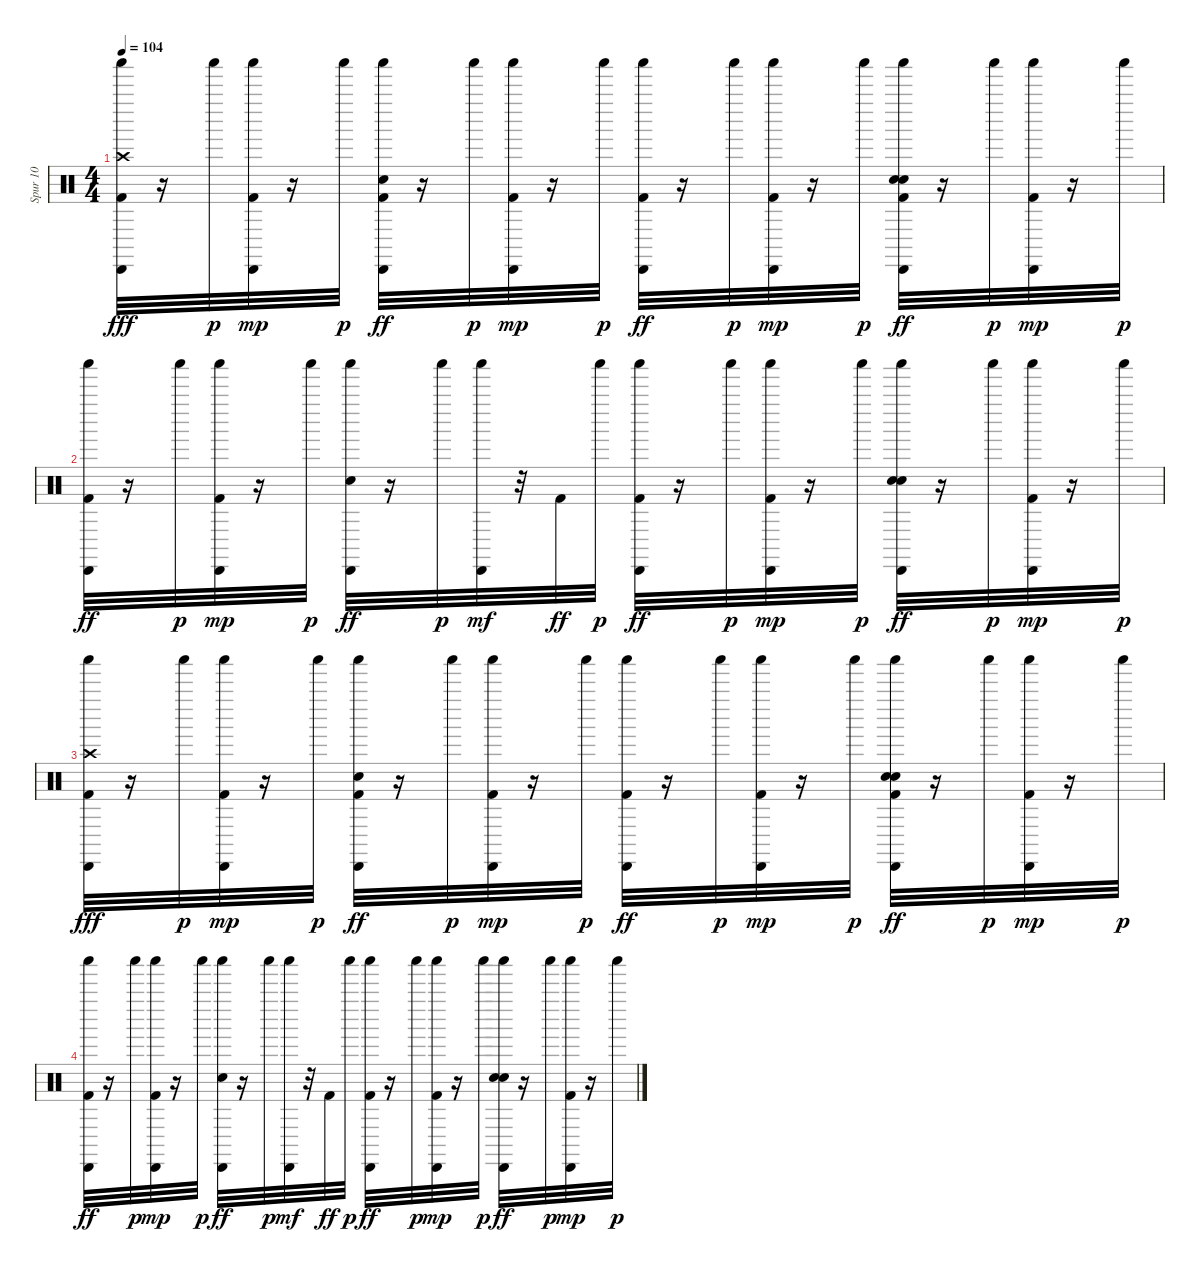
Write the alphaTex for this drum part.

\track ("Spur 10" "Spur 10") {instrument percussion}
\staff {score}
\articulation defaults
\ts (4 4)
\tempo 104
\clef neutral
\ks c
("Crash high (hit)" "Kick (hit) 2" "Cabasa (hit)" "Shaker (hit)").32{dy fff} r.16 "Shaker (hit)".32{dy p} ("Kick (hit) 2" "Cabasa (hit)" "Shaker (hit)").32{dy mp} r.16 "Shaker (hit)".32{dy p} ("Kick (hit) 2" "Snare (hit) 2" "Cabasa (hit)" "Shaker (hit)").32{dy ff} r.16 "Shaker (hit)".32{dy p} ("Kick (hit) 2" "Cabasa (hit)" "Shaker (hit)").32{dy mp} r.16 "Shaker (hit)".32{dy p} ("Kick (hit) 2" "Cabasa (hit)" "Shaker (hit)").32{dy ff} r.16 "Shaker (hit)".32{dy p} ("Kick (hit) 2" "Cabasa (hit)" "Shaker (hit)").32{dy mp} r.16 "Shaker (hit)".32{dy p} ("Kick (hit) 2" "Snare (hit) 2" "Hand Clap (hit)" "Cabasa (hit)" "Shaker (hit)").32{dy ff} r.16 "Shaker (hit)".32{dy p} ("Kick (hit) 2" "Cabasa (hit)" "Shaker (hit)").32{dy mp} r.16 "Shaker (hit)".32{dy p} |
("Kick (hit) 2" "Cabasa (hit)" "Shaker (hit)").32{dy ff} r.16 "Shaker (hit)".32{dy p} ("Kick (hit) 2" "Cabasa (hit)" "Shaker (hit)").32{dy mp} r.16 "Shaker (hit)".32{dy p} ("Snare (hit) 2" "Cabasa (hit)" "Shaker (hit)").32{dy ff} r.16 "Shaker (hit)".32{dy p} ("Cabasa (hit)" "Shaker (hit)").32{dy mf} r.32 "Kick (hit) 2".32{dy ff} "Shaker (hit)".32{dy p} ("Kick (hit) 2" "Cabasa (hit)" "Shaker (hit)").32{dy ff} r.16 "Shaker (hit)".32{dy p} ("Kick (hit) 2" "Cabasa (hit)" "Shaker (hit)").32{dy mp} r.16 "Shaker (hit)".32{dy p} ("Snare (hit) 2" "Hand Clap (hit)" "Cabasa (hit)" "Shaker (hit)").32{dy ff} r.16 "Shaker (hit)".32{dy p} ("Kick (hit) 2" "Cabasa (hit)" "Shaker (hit)").32{dy mp} r.16 "Shaker (hit)".32{dy p} |
("Crash high (hit)" "Kick (hit) 2" "Cabasa (hit)" "Shaker (hit)").32{dy fff} r.16 "Shaker (hit)".32{dy p} ("Kick (hit) 2" "Cabasa (hit)" "Shaker (hit)").32{dy mp} r.16 "Shaker (hit)".32{dy p} ("Kick (hit) 2" "Snare (hit) 2" "Cabasa (hit)" "Shaker (hit)").32{dy ff} r.16 "Shaker (hit)".32{dy p} ("Kick (hit) 2" "Cabasa (hit)" "Shaker (hit)").32{dy mp} r.16 "Shaker (hit)".32{dy p} ("Kick (hit) 2" "Cabasa (hit)" "Shaker (hit)").32{dy ff} r.16 "Shaker (hit)".32{dy p} ("Kick (hit) 2" "Cabasa (hit)" "Shaker (hit)").32{dy mp} r.16 "Shaker (hit)".32{dy p} ("Kick (hit) 2" "Snare (hit) 2" "Hand Clap (hit)" "Cabasa (hit)" "Shaker (hit)").32{dy ff} r.16 "Shaker (hit)".32{dy p} ("Kick (hit) 2" "Cabasa (hit)" "Shaker (hit)").32{dy mp} r.16 "Shaker (hit)".32{dy p} |
("Kick (hit) 2" "Cabasa (hit)" "Shaker (hit)").32{dy ff} r.16 "Shaker (hit)".32{dy p} ("Kick (hit) 2" "Cabasa (hit)" "Shaker (hit)").32{dy mp} r.16 "Shaker (hit)".32{dy p} ("Snare (hit) 2" "Cabasa (hit)" "Shaker (hit)").32{dy ff} r.16 "Shaker (hit)".32{dy p} ("Cabasa (hit)" "Shaker (hit)").32{dy mf} r.32 "Kick (hit) 2".32{dy ff} "Shaker (hit)".32{dy p} ("Kick (hit) 2" "Cabasa (hit)" "Shaker (hit)").32{dy ff} r.16 "Shaker (hit)".32{dy p} ("Kick (hit) 2" "Cabasa (hit)" "Shaker (hit)").32{dy mp} r.16 "Shaker (hit)".32{dy p} ("Snare (hit) 2" "Hand Clap (hit)" "Cabasa (hit)" "Shaker (hit)").32{dy ff} r.16 "Shaker (hit)".32{dy p} ("Kick (hit) 2" "Cabasa (hit)" "Shaker (hit)").32{dy mp} r.16 "Shaker (hit)".32{dy p}
